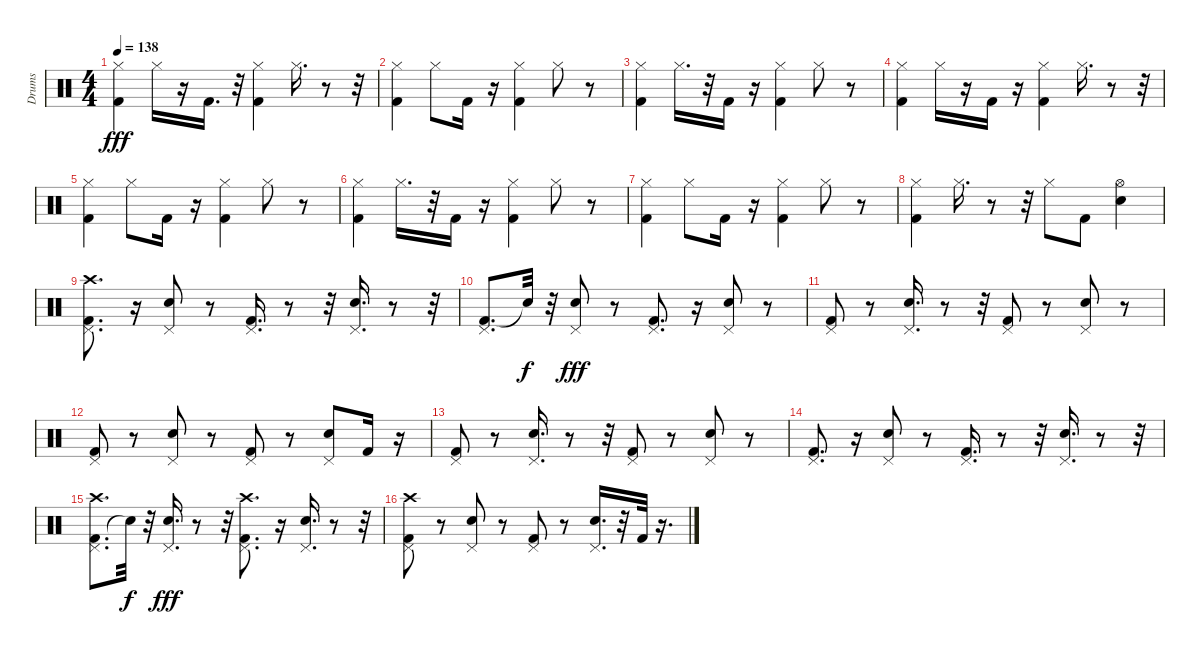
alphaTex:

\track ("Drums" "Drums") {instrument percussion}
\staff {score}
\articulation defaults
\ts (4 4)
\tempo 138
\clef neutral
\ks c
("Kick (hit) 2" "Hi-Hat (closed)").4{dy fff} "Hi-Hat (closed)".16 r.16 "Kick (hit) 2".16{d} r.32 ("Kick (hit) 2" "Hi-Hat (closed)").4 "Hi-Hat (closed)".16{d} r.8 r.32 |
("Kick (hit) 2" "Hi-Hat (closed)").4 "Hi-Hat (closed)".8 "Kick (hit) 2".16 r.16 ("Kick (hit) 2" "Hi-Hat (closed)").4 "Hi-Hat (closed)".8 r.8 |
("Kick (hit) 2" "Hi-Hat (closed)").4 "Hi-Hat (closed)".16{d} r.32 "Kick (hit) 2".16 r.16 ("Kick (hit) 2" "Hi-Hat (closed)").4 "Hi-Hat (closed)".8 r.8 |
("Kick (hit) 2" "Hi-Hat (closed)").4 "Hi-Hat (closed)".16 r.16 "Kick (hit) 2".16 r.16 ("Kick (hit) 2" "Hi-Hat (closed)").4 "Hi-Hat (closed)".16{d} r.8 r.32 |
("Kick (hit) 2" "Hi-Hat (closed)").4 "Hi-Hat (closed)".8 "Kick (hit) 2".16 r.16 ("Kick (hit) 2" "Hi-Hat (closed)").4 "Hi-Hat (closed)".8 r.8 |
("Kick (hit) 2" "Hi-Hat (closed)").4 "Hi-Hat (closed)".16{d} r.32 "Kick (hit) 2".16 r.16 ("Kick (hit) 2" "Hi-Hat (closed)").4 "Hi-Hat (closed)".8 r.8 |
("Kick (hit) 2" "Hi-Hat (closed)").4 "Hi-Hat (closed)".8 "Kick (hit) 2".16 r.16 ("Kick (hit) 2" "Hi-Hat (closed)").4 "Hi-Hat (closed)".8 r.8 |
("Kick (hit) 2" "Hi-Hat (closed)").4 "Hi-Hat (closed)".16{d} r.8 r.32 "Hi-Hat (closed)".8 "Kick (hit) 2".8 ("Snare (hit) 2" "Hi-Hat (open)").4 |
("Kick (hit) 2" "Pedal Hi-Hat (hit)" "Crash high (hit)").8{d} r.16 ("Snare (hit) 2" "Pedal Hi-Hat (hit)").8 r.8 ("Kick (hit) 2" "Pedal Hi-Hat (hit)").16{d} r.8 r.32 ("Snare (hit) 2" "Pedal Hi-Hat (hit)").16{d} r.8 r.32 |
("Kick (hit) 2" "Pedal Hi-Hat (hit)").8{d} "Snare (hit)"{t}.32{dy f} r.32 ("Snare (hit) 2" "Pedal Hi-Hat (hit)").8{dy fff} r.8 ("Kick (hit) 2" "Pedal Hi-Hat (hit)").8{d} r.16 ("Snare (hit) 2" "Pedal Hi-Hat (hit)").8 r.8 |
("Kick (hit) 2" "Pedal Hi-Hat (hit)").8 r.8 ("Snare (hit) 2" "Pedal Hi-Hat (hit)").16{d} r.8 r.32 ("Kick (hit) 2" "Pedal Hi-Hat (hit)").8 r.8 ("Snare (hit) 2" "Pedal Hi-Hat (hit)").8 r.8 |
("Kick (hit) 2" "Pedal Hi-Hat (hit)").8 r.8 ("Snare (hit) 2" "Pedal Hi-Hat (hit)").8 r.8 ("Kick (hit) 2" "Pedal Hi-Hat (hit)").8 r.8 ("Snare (hit) 2" "Pedal Hi-Hat (hit)").8 "Kick (hit) 2".16 r.16 |
("Kick (hit) 2" "Pedal Hi-Hat (hit)").8 r.8 ("Snare (hit) 2" "Pedal Hi-Hat (hit)").16{d} r.8 r.32 ("Kick (hit) 2" "Pedal Hi-Hat (hit)").8 r.8 ("Snare (hit) 2" "Pedal Hi-Hat (hit)").8 r.8 |
("Kick (hit) 2" "Pedal Hi-Hat (hit)").8{d} r.16 ("Snare (hit) 2" "Pedal Hi-Hat (hit)").8 r.8 ("Kick (hit) 2" "Pedal Hi-Hat (hit)").16{d} r.8 r.32 ("Snare (hit) 2" "Pedal Hi-Hat (hit)").16{d} r.8 r.32 |
("Kick (hit) 2" "Pedal Hi-Hat (hit)" "Crash high (hit)").8{d} "Snare (hit)"{t}.32{dy f} r.32 ("Snare (hit) 2" "Pedal Hi-Hat (hit)").16{d dy fff} r.8 r.32 ("Kick (hit) 2" "Pedal Hi-Hat (hit)" "Crash high (hit)").8{d} r.16 ("Snare (hit) 2" "Pedal Hi-Hat (hit)").16{d} r.8 r.32 |
("Kick (hit) 2" "Pedal Hi-Hat (hit)" "Crash high (hit)").8 r.8 ("Snare (hit) 2" "Pedal Hi-Hat (hit)").8 r.8 ("Kick (hit) 2" "Pedal Hi-Hat (hit)").8 r.8 ("Snare (hit) 2" "Pedal Hi-Hat (hit)").16{d} r.32 "Kick (hit) 2".32 r.16{d}
